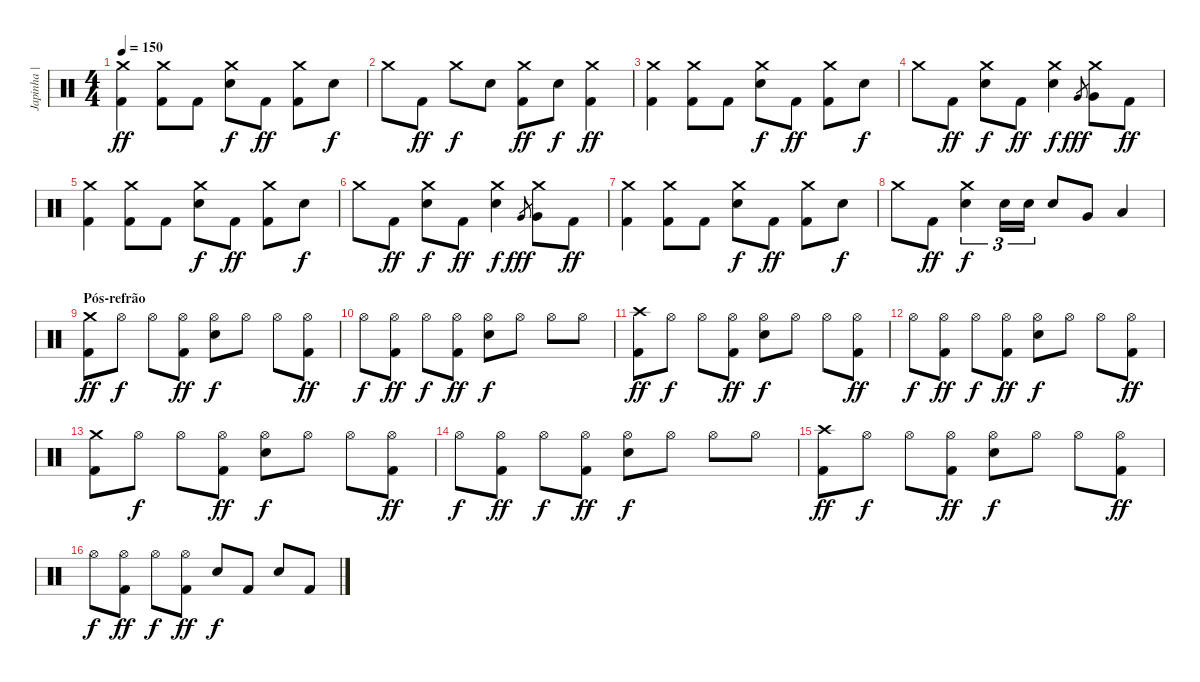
\track ("Japinha | Bateria" "Japinha | ") {instrument percussion}
\staff {score}
\articulation defaults
\ts (4 4)
\tempo 150
\clef neutral
\ks c
("Crash medium (hit)" "Kick (hit) 2").4{dy ff} ("Crash medium (hit)" "Kick (hit) 2").8 "Kick (hit) 2".8 ("Crash medium (hit)" "Electric Snare (hit)").8{dy f} "Kick (hit) 2".8{dy ff} ("Crash medium (hit)" "Kick (hit) 2").8 "Electric Snare (hit)".8{dy f} |
"Crash medium (hit)".8 "Kick (hit) 2".8{dy ff} "Crash medium (hit)".8{dy f} "Electric Snare (hit)".8 ("Crash medium (hit)" "Kick (hit) 2").8{dy ff} "Electric Snare (hit)".8{dy f} ("Crash medium (hit)" "Kick (hit) 2").4{dy ff} |
("Crash medium (hit)" "Kick (hit) 2").4 ("Crash medium (hit)" "Kick (hit) 2").8 "Kick (hit) 2".8 ("Crash medium (hit)" "Electric Snare (hit)").8{dy f} "Kick (hit) 2".8{dy ff} ("Crash medium (hit)" "Kick (hit) 2").8 "Electric Snare (hit)".8{dy f} |
"Crash medium (hit)".8 "Kick (hit) 2".8{dy ff} ("Crash medium (hit)" "Electric Snare (hit)").8{dy f} "Kick (hit) 2".8{dy ff} ("Crash medium (hit)" "Electric Snare (hit)").4{dy f} "Very Low Tom (hit)".8{gr dy fff} ("Crash medium (hit)" "Very Low Tom (hit)").8 "Kick (hit) 2".8{dy ff} |
("Crash medium (hit)" "Kick (hit) 2").4 ("Crash medium (hit)" "Kick (hit) 2").8 "Kick (hit) 2".8 ("Crash medium (hit)" "Electric Snare (hit)").8{dy f} "Kick (hit) 2".8{dy ff} ("Crash medium (hit)" "Kick (hit) 2").8 "Electric Snare (hit)".8{dy f} |
"Crash medium (hit)".8 "Kick (hit) 2".8{dy ff} ("Crash medium (hit)" "Electric Snare (hit)").8{dy f} "Kick (hit) 2".8{dy ff} ("Crash medium (hit)" "Electric Snare (hit)").4{dy f} "Very Low Tom (hit)".8{gr dy fff} ("Crash medium (hit)" "Very Low Tom (hit)").8 "Kick (hit) 2".8{dy ff} |
("Crash medium (hit)" "Kick (hit) 2").4 ("Crash medium (hit)" "Kick (hit) 2").8 "Kick (hit) 2".8 ("Crash medium (hit)" "Electric Snare (hit)").8{dy f} "Kick (hit) 2".8{dy ff} ("Crash medium (hit)" "Kick (hit) 2").8 "Electric Snare (hit)".8{dy f} |
"Crash medium (hit)".8 "Kick (hit) 2".8{dy ff} ("Crash medium (hit)" "Electric Snare (hit)").4{tu (3 2) dy f} "Electric Snare (hit)".16{tu (3 2)} "Electric Snare (hit)".16{tu (3 2)} "Electric Snare (hit)".8 "Very Low Tom (hit)".8 "Low Tom (hit)".4 |
\section ("" "Pós-refrão")
("Crash medium (hit)" "Kick (hit) 2").8{dy ff} "Hi-Hat (open)".8{dy f} "Hi-Hat (open)".8 ("Hi-Hat (open)" "Kick (hit) 2").8{dy ff} ("Hi-Hat (open)" "Electric Snare (hit)").8{dy f} "Hi-Hat (open)".8 "Hi-Hat (open)".8 ("Hi-Hat (open)" "Kick (hit) 2").8{dy ff} |
"Hi-Hat (open)".8{dy f} ("Hi-Hat (open)" "Kick (hit) 2").8{dy ff} "Hi-Hat (open)".8{dy f} ("Hi-Hat (open)" "Kick (hit) 2").8{dy ff} ("Hi-Hat (open)" "Electric Snare (hit)").8{dy f} "Hi-Hat (open)".8 "Hi-Hat (open)".8 "Hi-Hat (open)".8 |
("Crash high (hit)" "Kick (hit) 2").8{dy ff} "Hi-Hat (open)".8{dy f} "Hi-Hat (open)".8 ("Hi-Hat (open)" "Kick (hit) 2").8{dy ff} ("Hi-Hat (open)" "Electric Snare (hit)").8{dy f} "Hi-Hat (open)".8 "Hi-Hat (open)".8 ("Hi-Hat (open)" "Kick (hit) 2").8{dy ff} |
"Hi-Hat (open)".8{dy f} ("Hi-Hat (open)" "Kick (hit) 2").8{dy ff} "Hi-Hat (open)".8{dy f} ("Hi-Hat (open)" "Kick (hit) 2").8{dy ff} ("Hi-Hat (open)" "Electric Snare (hit)").8{dy f} "Hi-Hat (open)".8 "Hi-Hat (open)".8 ("Hi-Hat (open)" "Kick (hit) 2").8{dy ff} |
("Crash medium (hit)" "Kick (hit) 2").8 "Hi-Hat (open)".8{dy f} "Hi-Hat (open)".8 ("Hi-Hat (open)" "Kick (hit) 2").8{dy ff} ("Hi-Hat (open)" "Electric Snare (hit)").8{dy f} "Hi-Hat (open)".8 "Hi-Hat (open)".8 ("Hi-Hat (open)" "Kick (hit) 2").8{dy ff} |
"Hi-Hat (open)".8{dy f} ("Hi-Hat (open)" "Kick (hit) 2").8{dy ff} "Hi-Hat (open)".8{dy f} ("Hi-Hat (open)" "Kick (hit) 2").8{dy ff} ("Hi-Hat (open)" "Electric Snare (hit)").8{dy f} "Hi-Hat (open)".8 "Hi-Hat (open)".8 "Hi-Hat (open)".8 |
("Crash high (hit)" "Kick (hit) 2").8{dy ff} "Hi-Hat (open)".8{dy f} "Hi-Hat (open)".8 ("Hi-Hat (open)" "Kick (hit) 2").8{dy ff} ("Hi-Hat (open)" "Electric Snare (hit)").8{dy f} "Hi-Hat (open)".8 "Hi-Hat (open)".8 ("Hi-Hat (open)" "Kick (hit) 2").8{dy ff} |
"Hi-Hat (open)".8{dy f} ("Hi-Hat (open)" "Kick (hit) 2").8{dy ff} "Hi-Hat (open)".8{dy f} ("Hi-Hat (open)" "Kick (hit) 2").8{dy ff} "Electric Snare (hit)".8{dy f} "Kick (hit) 2".8 "Electric Snare (hit)".8 "Kick (hit) 2".8
